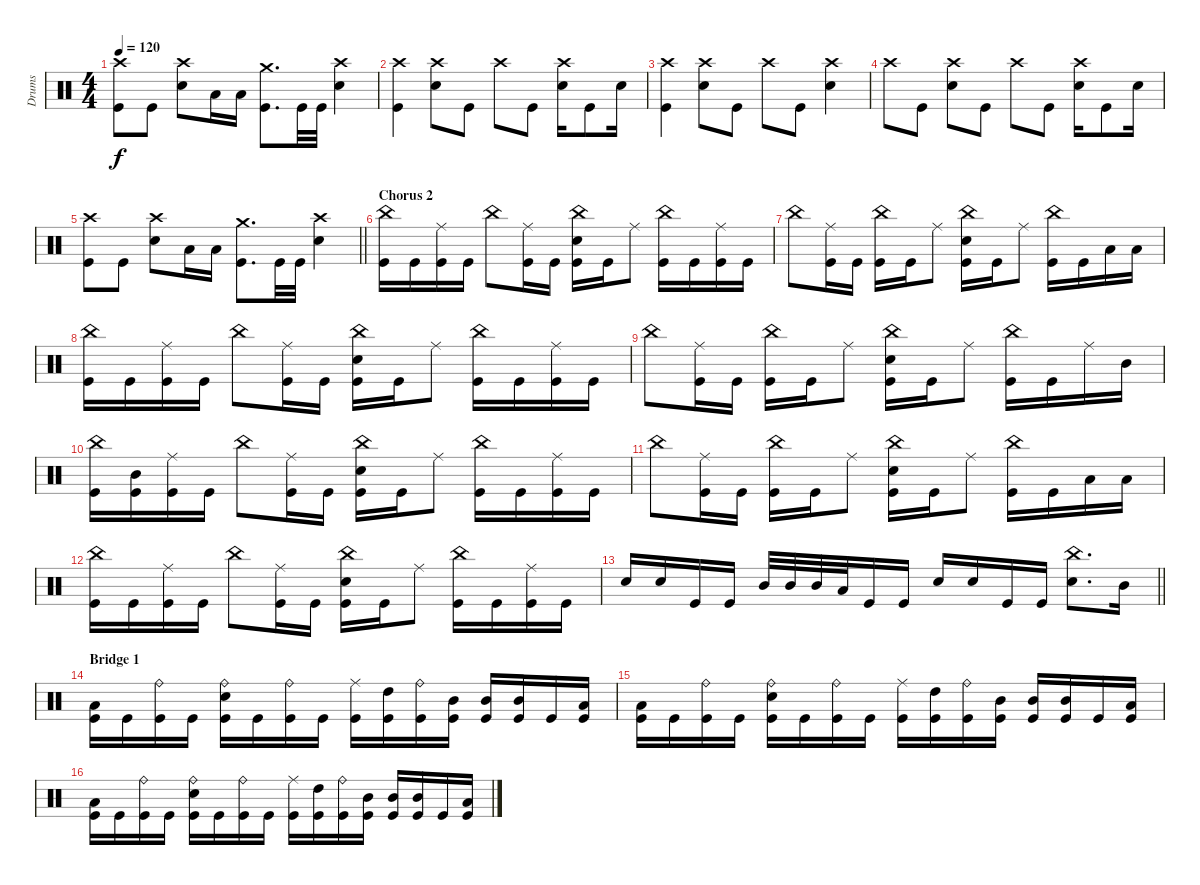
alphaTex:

\track ("Drums" "Drums") {instrument percussion}
\staff {score}
\articulation defaults
\ts (4 4)
\tempo 120
\clef neutral
\ks c
("Crash high (hit)" "Kick (hit)").8{dy f} "Kick (hit)".8 ("Crash high (hit)" "Electric Snare (hit)").8 "Low Tom (hit)".16 "Low Tom (hit)".16 ("Crash medium (hit)" "Kick (hit)").8{d} "Kick (hit)".32 "Kick (hit)".32 ("Crash high (hit)" "Electric Snare (hit)").4 |
("Crash high (hit)" "Kick (hit)").4 ("Crash high (hit)" "Electric Snare (hit)").8 "Kick (hit)".8 "Crash high (hit)".8 "Kick (hit)".8 ("Crash high (hit)" "Electric Snare (hit)").16 "Kick (hit)".8 "Electric Snare (hit)".16 |
("Crash high (hit)" "Kick (hit)").4 ("Crash high (hit)" "Electric Snare (hit)").8 "Kick (hit)".8 "Crash high (hit)".8 "Kick (hit)".8 ("Crash high (hit)" "Electric Snare (hit)").4 |
"Crash high (hit)".8 "Kick (hit)".8 ("Crash high (hit)" "Electric Snare (hit)").8 "Kick (hit)".8 "Crash high (hit)".8 "Kick (hit)".8 ("Crash high (hit)" "Electric Snare (hit)").16 "Kick (hit)".8 "Electric Snare (hit)".16 |
\barLineRight lightlight
("Crash high (hit)" "Kick (hit)").8 "Kick (hit)".8 ("Crash high (hit)" "Electric Snare (hit)").8 "Low Tom (hit)".16 "Low Tom (hit)".16 ("Crash medium (hit)" "Kick (hit)").8{d} "Kick (hit)".32 "Kick (hit)".32 ("Crash high (hit)" "Electric Snare (hit)").4 |
\section ("" "Chorus 2")
("China (hit)" "Kick (hit)").16 "Kick (hit)".16 ("Ride (middle)" "Kick (hit)").16 "Kick (hit)".16 "China (hit)".8 ("Ride (middle)" "Kick (hit)").16 "Kick (hit)".16 ("China (hit)" "Electric Snare (hit)" "Kick (hit)").16 "Kick (hit)".16 "Ride (middle)".8 ("China (hit)" "Kick (hit)").16 "Kick (hit)".16 ("Ride (middle)" "Kick (hit)").16 "Kick (hit)".16 |
"China (hit)".8 ("Ride (middle)" "Kick (hit)").16 "Kick (hit)".16 ("China (hit)" "Kick (hit)").16 "Kick (hit)".16 "Ride (middle)".8 ("China (hit)" "Electric Snare (hit)" "Kick (hit)").16 "Kick (hit)".16 "Ride (middle)".8 ("China (hit)" "Kick (hit)").16 "Kick (hit)".16 "Low Tom (hit)".16 "Low Tom (hit)".16 |
("China (hit)" "Kick (hit)").16 "Kick (hit)".16 ("Ride (middle)" "Kick (hit)").16 "Kick (hit)".16 "China (hit)".8 ("Ride (middle)" "Kick (hit)").16 "Kick (hit)".16 ("China (hit)" "Electric Snare (hit)" "Kick (hit)").16 "Kick (hit)".16 "Ride (middle)".8 ("China (hit)" "Kick (hit)").16 "Kick (hit)".16 ("Ride (middle)" "Kick (hit)").16 "Kick (hit)".16 |
"China (hit)".8 ("Ride (middle)" "Kick (hit)").16 "Kick (hit)".16 ("China (hit)" "Kick (hit)").16 "Kick (hit)".16 "Ride (middle)".8 ("China (hit)" "Electric Snare (hit)" "Kick (hit)").16 "Kick (hit)".16 "Ride (middle)".8 ("China (hit)" "Kick (hit)").16 "Kick (hit)".16 "Ride (middle)".16 "Mid Tom (hit)".16 |
("China (hit)" "Kick (hit)").16 ("Mid Tom (hit)" "Kick (hit)").16 ("Ride (middle)" "Kick (hit)").16 "Kick (hit)".16 "China (hit)".8 ("Ride (middle)" "Kick (hit)").16 "Kick (hit)".16 ("China (hit)" "Electric Snare (hit)" "Kick (hit)").16 "Kick (hit)".16 "Ride (middle)".8 ("China (hit)" "Kick (hit)").16 "Kick (hit)".16 ("Ride (middle)" "Kick (hit)").16 "Kick (hit)".16 |
"China (hit)".8 ("Ride (middle)" "Kick (hit)").16 "Kick (hit)".16 ("China (hit)" "Kick (hit)").16 "Kick (hit)".16 "Ride (middle)".8 ("China (hit)" "Electric Snare (hit)" "Kick (hit)").16 "Kick (hit)".16 "Ride (middle)".8 ("China (hit)" "Kick (hit)").16 "Kick (hit)".16 "Low Tom (hit)".16 "Low Tom (hit)".16 |
("China (hit)" "Kick (hit)").16 "Kick (hit)".16 ("Ride (middle)" "Kick (hit)").16 "Kick (hit)".16 "China (hit)".8 ("Ride (middle)" "Kick (hit)").16 "Kick (hit)".16 ("China (hit)" "Electric Snare (hit)" "Kick (hit)").16 "Kick (hit)".16 "Ride (middle)".8 ("China (hit)" "Kick (hit)").16 "Kick (hit)".16 ("Ride (middle)" "Kick (hit)").16 "Kick (hit)".16 |
\barLineRight lightlight "Electric Snare (hit)".16 "Electric Snare (hit)".16 "Kick (hit)".16 "Kick (hit)".16 "Mid Tom (hit)".32 "Mid Tom (hit)".32 "Mid Tom (hit)".32 "Low Tom (hit)".32 "Kick (hit)".16 "Kick (hit)".16 "Electric Snare (hit)".16 "Electric Snare (hit)".16 "Kick (hit)".16 "Kick (hit)".16
("China (hit)" "Electric Snare (hit)").8{d} "Mid Tom (hit)".16 |
\section ("" "Bridge 1")
("Low Tom (hit)" "Kick (hit)").16 "Kick (hit)".16 ("Ride (bell)" "Kick (hit)").16 "Kick (hit)".16 ("Ride (bell)" "Electric Snare (hit)" "Kick (hit)").16 "Kick (hit)".16 ("Ride (bell)" "Kick (hit)").16 "Kick (hit)".16 ("Ride (middle)" "Kick (hit)").16 ("High Tom (hit)" "Kick (hit)").16 ("Ride (bell)" "Kick (hit)").16 ("Mid Tom (hit)" "Kick (hit)").16 ("Mid Tom (hit)" "Kick (hit)").16 ("Mid Tom (hit)" "Kick (hit)").16 "Kick (hit)".16 ("Low Tom (hit)" "Kick (hit)").16 |
("Low Tom (hit)" "Kick (hit)").16 "Kick (hit)".16 ("Ride (bell)" "Kick (hit)").16 "Kick (hit)".16 ("Ride (bell)" "Electric Snare (hit)" "Kick (hit)").16 "Kick (hit)".16 ("Ride (bell)" "Kick (hit)").16 "Kick (hit)".16 ("Ride (middle)" "Kick (hit)").16 ("High Tom (hit)" "Kick (hit)").16 ("Ride (bell)" "Kick (hit)").16 ("Mid Tom (hit)" "Kick (hit)").16 ("Mid Tom (hit)" "Kick (hit)").16 ("Mid Tom (hit)" "Kick (hit)").16 "Kick (hit)".16 ("Low Tom (hit)" "Kick (hit)").16 |
("Low Tom (hit)" "Kick (hit)").16 "Kick (hit)".16 ("Ride (bell)" "Kick (hit)").16 "Kick (hit)".16 ("Ride (bell)" "Electric Snare (hit)" "Kick (hit)").16 "Kick (hit)".16 ("Ride (bell)" "Kick (hit)").16 "Kick (hit)".16 ("Ride (middle)" "Kick (hit)").16 ("High Tom (hit)" "Kick (hit)").16 ("Ride (bell)" "Kick (hit)").16 ("Mid Tom (hit)" "Kick (hit)").16 ("Mid Tom (hit)" "Kick (hit)").16 ("Mid Tom (hit)" "Kick (hit)").16 "Kick (hit)".16 ("Low Tom (hit)" "Kick (hit)").16
